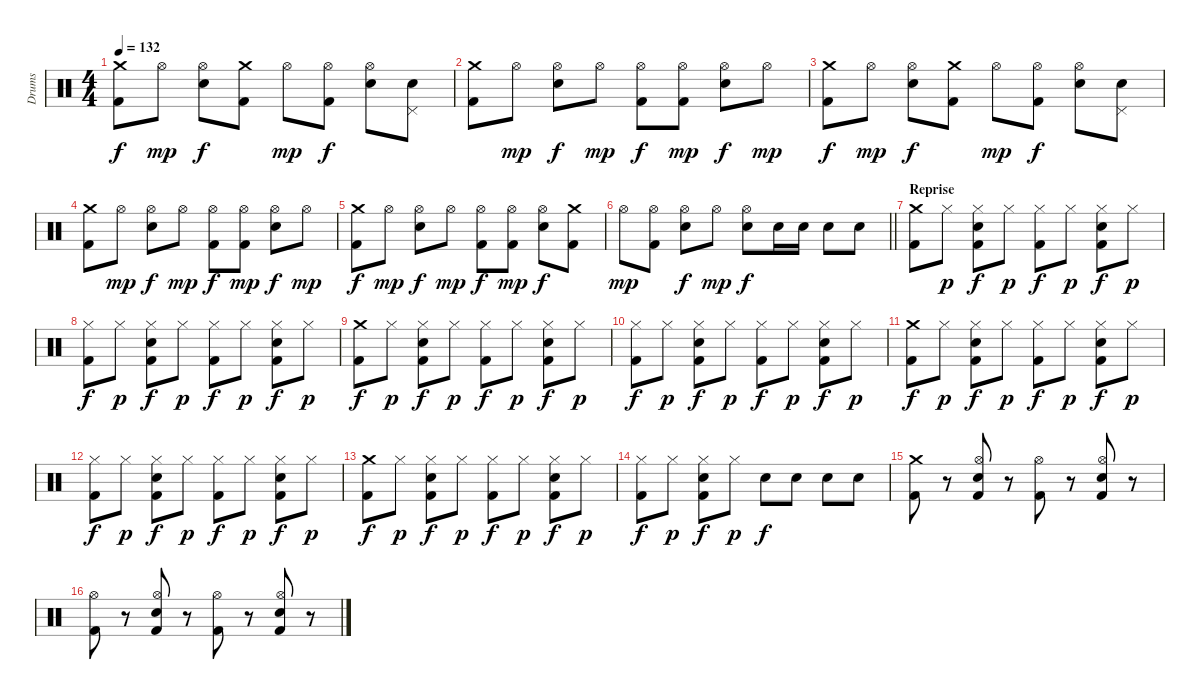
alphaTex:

\track ("Drums" "Drums") {instrument percussion}
\staff {score}
\articulation defaults
\ts (4 4)
\tempo 132
\clef neutral
\ks c
("Crash medium (hit)" "Kick (hit) 2").8{dy f} "Hi-Hat (open)".8{dy mp} ("Hi-Hat (open)" "Snare (hit) 2").8{dy f} ("Crash medium (hit)" "Kick (hit) 2").8 "Hi-Hat (open)".8{dy mp} ("Hi-Hat (open)" "Kick (hit) 2").8{dy f} ("Hi-Hat (open)" "Snare (hit) 2").8 ("Pedal Hi-Hat (hit)" "Snare (hit) 2").8 |
("Crash medium (hit)" "Kick (hit) 2").8 "Hi-Hat (open)".8{dy mp} ("Hi-Hat (open)" "Snare (hit) 2").8{dy f} "Hi-Hat (open)".8{dy mp} ("Hi-Hat (open)" "Kick (hit) 2").8{dy f} ("Hi-Hat (open)" "Kick (hit) 2").8{dy mp} ("Hi-Hat (open)" "Snare (hit) 2").8{dy f} "Hi-Hat (open)".8{dy mp} |
("Crash medium (hit)" "Kick (hit) 2").8{dy f} "Hi-Hat (open)".8{dy mp} ("Hi-Hat (open)" "Snare (hit) 2").8{dy f} ("Crash medium (hit)" "Kick (hit) 2").8 "Hi-Hat (open)".8{dy mp} ("Hi-Hat (open)" "Kick (hit) 2").8{dy f} ("Hi-Hat (open)" "Snare (hit) 2").8 ("Pedal Hi-Hat (hit)" "Snare (hit) 2").8 |
("Crash medium (hit)" "Kick (hit) 2").8 "Hi-Hat (open)".8{dy mp} ("Hi-Hat (open)" "Snare (hit) 2").8{dy f} "Hi-Hat (open)".8{dy mp} ("Hi-Hat (open)" "Kick (hit) 2").8{dy f} ("Hi-Hat (open)" "Kick (hit) 2").8{dy mp} ("Hi-Hat (open)" "Snare (hit) 2").8{dy f} "Hi-Hat (open)".8{dy mp} |
("Crash medium (hit)" "Kick (hit) 2").8{dy f} "Hi-Hat (open)".8{dy mp} ("Hi-Hat (open)" "Snare (hit) 2").8{dy f} "Hi-Hat (open)".8{dy mp} ("Hi-Hat (open)" "Kick (hit) 2").8{dy f} ("Hi-Hat (open)" "Kick (hit) 2").8{dy mp} ("Hi-Hat (open)" "Snare (hit) 2").8{dy f} ("Crash medium (hit)" "Kick (hit) 2").8 |
\barLineRight lightlight "Hi-Hat (open)".8{dy mp}
("Hi-Hat (open)" "Kick (hit) 2").8 ("Hi-Hat (open)" "Snare (hit) 2").8{dy f} "Hi-Hat (open)".8{dy mp} ("Hi-Hat (open)" "Snare (hit) 2").8{dy f} "Snare (hit) 2".16 "Snare (hit) 2".16 "Snare (hit) 2".8 "Snare (hit) 2".8 |
\section ("" "Reprise")
("Crash medium (hit)" "Kick (hit) 2").8 "Hi-Hat (closed)".8{dy p} ("Hi-Hat (closed)" "Snare (hit) 2" "Kick (hit) 2").8{dy f} "Hi-Hat (closed)".8{dy p} ("Hi-Hat (closed)" "Kick (hit) 2").8{dy f} "Hi-Hat (closed)".8{dy p} ("Hi-Hat (closed)" "Snare (hit) 2" "Kick (hit) 2").8{dy f} "Hi-Hat (closed)".8{dy p} |
("Hi-Hat (closed)" "Kick (hit) 2").8{dy f} "Hi-Hat (closed)".8{dy p} ("Hi-Hat (closed)" "Snare (hit) 2" "Kick (hit) 2").8{dy f} "Hi-Hat (closed)".8{dy p} ("Hi-Hat (closed)" "Kick (hit) 2").8{dy f} "Hi-Hat (closed)".8{dy p} ("Hi-Hat (closed)" "Snare (hit) 2" "Kick (hit) 2").8{dy f} "Hi-Hat (closed)".8{dy p} |
("Crash medium (hit)" "Kick (hit) 2").8{dy f} "Hi-Hat (closed)".8{dy p} ("Hi-Hat (closed)" "Snare (hit) 2" "Kick (hit) 2").8{dy f} "Hi-Hat (closed)".8{dy p} ("Hi-Hat (closed)" "Kick (hit) 2").8{dy f} "Hi-Hat (closed)".8{dy p} ("Hi-Hat (closed)" "Snare (hit) 2" "Kick (hit) 2").8{dy f} "Hi-Hat (closed)".8{dy p} |
("Hi-Hat (closed)" "Kick (hit) 2").8{dy f} "Hi-Hat (closed)".8{dy p} ("Hi-Hat (closed)" "Snare (hit) 2" "Kick (hit) 2").8{dy f} "Hi-Hat (closed)".8{dy p} ("Hi-Hat (closed)" "Kick (hit) 2").8{dy f} "Hi-Hat (closed)".8{dy p} ("Hi-Hat (closed)" "Snare (hit) 2" "Kick (hit) 2").8{dy f} "Hi-Hat (closed)".8{dy p} |
("Crash medium (hit)" "Kick (hit) 2").8{dy f} "Hi-Hat (closed)".8{dy p} ("Hi-Hat (closed)" "Snare (hit) 2" "Kick (hit) 2").8{dy f} "Hi-Hat (closed)".8{dy p} ("Hi-Hat (closed)" "Kick (hit) 2").8{dy f} "Hi-Hat (closed)".8{dy p} ("Hi-Hat (closed)" "Snare (hit) 2" "Kick (hit) 2").8{dy f} "Hi-Hat (closed)".8{dy p} |
("Hi-Hat (closed)" "Kick (hit) 2").8{dy f} "Hi-Hat (closed)".8{dy p} ("Hi-Hat (closed)" "Snare (hit) 2" "Kick (hit) 2").8{dy f} "Hi-Hat (closed)".8{dy p} ("Hi-Hat (closed)" "Kick (hit) 2").8{dy f} "Hi-Hat (closed)".8{dy p} ("Hi-Hat (closed)" "Snare (hit) 2" "Kick (hit) 2").8{dy f} "Hi-Hat (closed)".8{dy p} |
("Crash medium (hit)" "Kick (hit) 2").8{dy f} "Hi-Hat (closed)".8{dy p} ("Hi-Hat (closed)" "Snare (hit) 2" "Kick (hit) 2").8{dy f} "Hi-Hat (closed)".8{dy p} ("Hi-Hat (closed)" "Kick (hit) 2").8{dy f} "Hi-Hat (closed)".8{dy p} ("Hi-Hat (closed)" "Snare (hit) 2" "Kick (hit) 2").8{dy f} "Hi-Hat (closed)".8{dy p} |
("Hi-Hat (closed)" "Kick (hit) 2").8{dy f} "Hi-Hat (closed)".8{dy p} ("Hi-Hat (closed)" "Snare (hit) 2" "Kick (hit) 2").8{dy f} "Hi-Hat (closed)".8{dy p} "Snare (hit) 2".8{dy f} "Snare (hit) 2".8 "Snare (hit) 2".8 "Snare (hit) 2".8 |
("Crash medium (hit)" "Kick (hit) 2").8 r.8 ("Hi-Hat (open)" "Snare (hit) 2" "Kick (hit) 2").8 r.8 ("Hi-Hat (open)" "Kick (hit) 2").8 r.8 ("Hi-Hat (open)" "Snare (hit) 2" "Kick (hit) 2").8 r.8 |
("Hi-Hat (open)" "Kick (hit) 2").8 r.8 ("Hi-Hat (open)" "Snare (hit) 2" "Kick (hit) 2").8 r.8 ("Hi-Hat (open)" "Kick (hit) 2").8 r.8 ("Hi-Hat (open)" "Snare (hit) 2" "Kick (hit) 2").8 r.8
